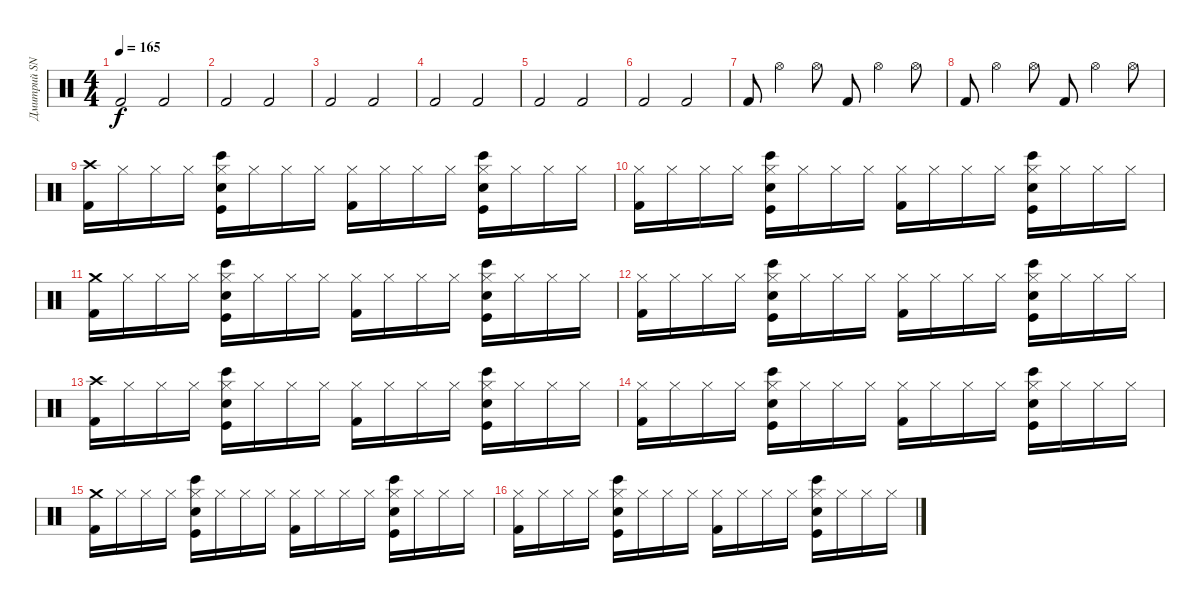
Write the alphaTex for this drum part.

\track ("Дмитрий SNAKE Хакимов" "Дмитрий SN") {instrument percussion}
\staff {score}
\articulation defaults
\ts (4 4)
\tempo 165
\clef neutral
\ks c "Kick (hit) 2".2{dy f} "Kick (hit) 2".2
|
"Kick (hit) 2".2 "Kick (hit) 2".2 |
"Kick (hit) 2".2 "Kick (hit) 2".2 |
"Kick (hit) 2".2 "Kick (hit) 2".2 |
"Kick (hit) 2".2 "Kick (hit) 2".2 |
"Kick (hit) 2".2 "Kick (hit) 2".2 |
"Kick (hit) 2".8 "Hi-Hat (open)".4 "Hi-Hat (open)".8 "Kick (hit) 2".8 "Hi-Hat (open)".4 "Hi-Hat (open)".8 |
"Kick (hit) 2".8 "Hi-Hat (open)".4 "Hi-Hat (open)".8 "Kick (hit) 2".8 "Hi-Hat (open)".4 "Hi-Hat (open)".8 |
("Crash high (hit)" "Kick (hit) 2").16 "Hi-Hat (closed)".16 "Hi-Hat (closed)".16 "Hi-Hat (closed)".16 ("Hi-Hat (closed)" "Electric Snare (hit)" "Bongo High (hit)" "Kick (hit)").16 "Hi-Hat (closed)".16 "Hi-Hat (closed)".16 "Hi-Hat (closed)".16 ("Hi-Hat (closed)" "Kick (hit) 2").16 "Hi-Hat (closed)".16 "Hi-Hat (closed)".16 "Hi-Hat (closed)".16 ("Hi-Hat (closed)" "Electric Snare (hit)" "Bongo High (hit)" "Kick (hit)").16 "Hi-Hat (closed)".16 "Hi-Hat (closed)".16 "Hi-Hat (closed)".16 |
("Hi-Hat (closed)" "Kick (hit) 2").16 "Hi-Hat (closed)".16 "Hi-Hat (closed)".16 "Hi-Hat (closed)".16 ("Hi-Hat (closed)" "Electric Snare (hit)" "Bongo High (hit)" "Kick (hit)").16 "Hi-Hat (closed)".16 "Hi-Hat (closed)".16 "Hi-Hat (closed)".16 ("Hi-Hat (closed)" "Kick (hit) 2").16 "Hi-Hat (closed)".16 "Hi-Hat (closed)".16 "Hi-Hat (closed)".16 ("Hi-Hat (closed)" "Electric Snare (hit)" "Bongo High (hit)" "Kick (hit)").16 "Hi-Hat (closed)".16 "Hi-Hat (closed)".16 "Hi-Hat (closed)".16 |
("Crash medium (hit)" "Kick (hit) 2").16 "Hi-Hat (closed)".16 "Hi-Hat (closed)".16 "Hi-Hat (closed)".16 ("Hi-Hat (closed)" "Electric Snare (hit)" "Bongo High (hit)" "Kick (hit)").16 "Hi-Hat (closed)".16 "Hi-Hat (closed)".16 "Hi-Hat (closed)".16 ("Hi-Hat (closed)" "Kick (hit) 2").16 "Hi-Hat (closed)".16 "Hi-Hat (closed)".16 "Hi-Hat (closed)".16 ("Hi-Hat (closed)" "Electric Snare (hit)" "Bongo High (hit)" "Kick (hit)").16 "Hi-Hat (closed)".16 "Hi-Hat (closed)".16 "Hi-Hat (closed)".16 |
("Hi-Hat (closed)" "Kick (hit) 2").16 "Hi-Hat (closed)".16 "Hi-Hat (closed)".16 "Hi-Hat (closed)".16 ("Hi-Hat (closed)" "Electric Snare (hit)" "Bongo High (hit)" "Kick (hit)").16 "Hi-Hat (closed)".16 "Hi-Hat (closed)".16 "Hi-Hat (closed)".16 ("Hi-Hat (closed)" "Kick (hit) 2").16 "Hi-Hat (closed)".16 "Hi-Hat (closed)".16 "Hi-Hat (closed)".16 ("Hi-Hat (closed)" "Electric Snare (hit)" "Bongo High (hit)" "Kick (hit)").16 "Hi-Hat (closed)".16 "Hi-Hat (closed)".16 "Hi-Hat (closed)".16 |
("Crash high (hit)" "Kick (hit) 2").16 "Hi-Hat (closed)".16 "Hi-Hat (closed)".16 "Hi-Hat (closed)".16 ("Hi-Hat (closed)" "Electric Snare (hit)" "Bongo High (hit)" "Kick (hit)").16 "Hi-Hat (closed)".16 "Hi-Hat (closed)".16 "Hi-Hat (closed)".16 ("Hi-Hat (closed)" "Kick (hit) 2").16 "Hi-Hat (closed)".16 "Hi-Hat (closed)".16 "Hi-Hat (closed)".16 ("Hi-Hat (closed)" "Electric Snare (hit)" "Bongo High (hit)" "Kick (hit)").16 "Hi-Hat (closed)".16 "Hi-Hat (closed)".16 "Hi-Hat (closed)".16 |
("Hi-Hat (closed)" "Kick (hit) 2").16 "Hi-Hat (closed)".16 "Hi-Hat (closed)".16 "Hi-Hat (closed)".16 ("Hi-Hat (closed)" "Electric Snare (hit)" "Bongo High (hit)" "Kick (hit)").16 "Hi-Hat (closed)".16 "Hi-Hat (closed)".16 "Hi-Hat (closed)".16 ("Hi-Hat (closed)" "Kick (hit) 2").16 "Hi-Hat (closed)".16 "Hi-Hat (closed)".16 "Hi-Hat (closed)".16 ("Hi-Hat (closed)" "Electric Snare (hit)" "Bongo High (hit)" "Kick (hit)").16 "Hi-Hat (closed)".16 "Hi-Hat (closed)".16 "Hi-Hat (closed)".16 |
("Crash medium (hit)" "Kick (hit) 2").16 "Hi-Hat (closed)".16 "Hi-Hat (closed)".16 "Hi-Hat (closed)".16 ("Hi-Hat (closed)" "Electric Snare (hit)" "Bongo High (hit)" "Kick (hit)").16 "Hi-Hat (closed)".16 "Hi-Hat (closed)".16 "Hi-Hat (closed)".16 ("Hi-Hat (closed)" "Kick (hit) 2").16 "Hi-Hat (closed)".16 "Hi-Hat (closed)".16 "Hi-Hat (closed)".16 ("Hi-Hat (closed)" "Electric Snare (hit)" "Bongo High (hit)" "Kick (hit)").16 "Hi-Hat (closed)".16 "Hi-Hat (closed)".16 "Hi-Hat (closed)".16 |
("Hi-Hat (closed)" "Kick (hit) 2").16 "Hi-Hat (closed)".16 "Hi-Hat (closed)".16 "Hi-Hat (closed)".16 ("Hi-Hat (closed)" "Electric Snare (hit)" "Bongo High (hit)" "Kick (hit)").16 "Hi-Hat (closed)".16 "Hi-Hat (closed)".16 "Hi-Hat (closed)".16 ("Hi-Hat (closed)" "Kick (hit) 2").16 "Hi-Hat (closed)".16 "Hi-Hat (closed)".16 "Hi-Hat (closed)".16 ("Hi-Hat (closed)" "Electric Snare (hit)" "Bongo High (hit)" "Kick (hit)").16 "Hi-Hat (closed)".16 "Hi-Hat (closed)".16 "Hi-Hat (closed)".16
